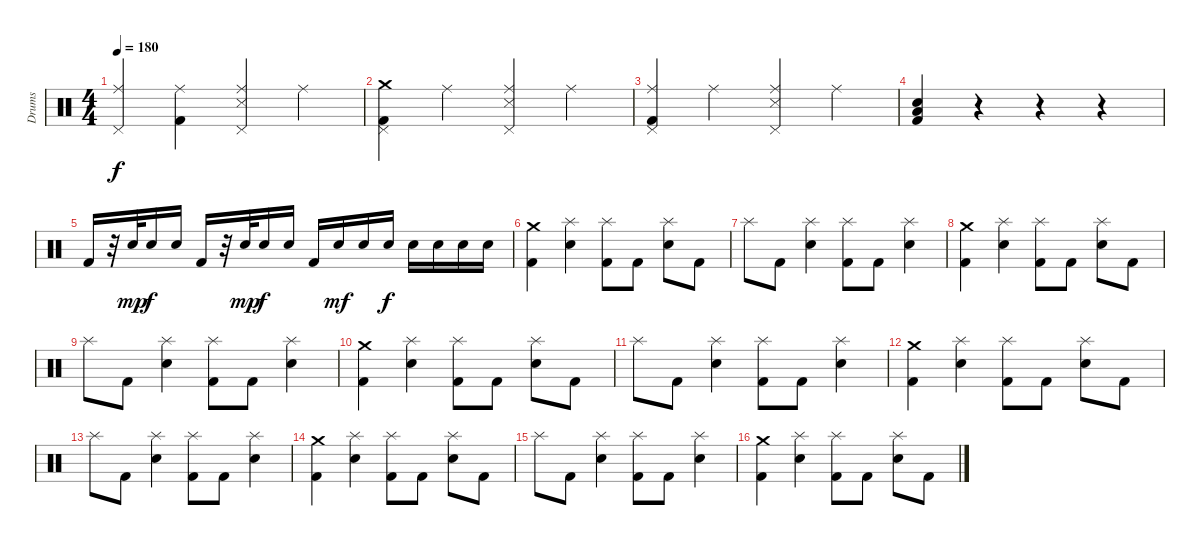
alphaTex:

\track ("Drums" "Drums") {instrument percussion}
\staff {score}
\articulation defaults
\ts (4 4)
\tempo 180
\clef neutral
\ks c
("Pedal Hi-Hat (hit)" "Ride (middle)").4{dy f} ("Ride (middle)" "Kick (hit) 2").4 ("Pedal Hi-Hat (hit)" "Ride (middle)" "Snare (side stick) 3").4 "Ride (middle)".4 |
("Pedal Hi-Hat (hit)" "Crash medium (hit)" "Kick (hit) 2").4 "Ride (middle)".4 ("Pedal Hi-Hat (hit)" "Ride (middle)" "Snare (side stick) 3").4 "Ride (middle)".4 |
("Pedal Hi-Hat (hit)" "Ride (middle)" "Kick (hit) 2").4 "Ride (middle)".4 ("Pedal Hi-Hat (hit)" "Ride (middle)" "Snare (side stick) 3").4 "Ride (middle)".4 |
("Low Tom (hit)" "Electric Snare (hit)" "Kick (hit) 2").4 r.4 r.4 r.4 |
"Kick (hit) 2".16 r.32 "Electric Snare (hit)".32{dy mp} "Electric Snare (hit)".16{dy f} "Electric Snare (hit)".16 "Kick (hit) 2".16 r.32 "Electric Snare (hit)".32{dy mp} "Electric Snare (hit)".16{dy f} "Electric Snare (hit)".16 "Kick (hit) 2".16 "Electric Snare (hit)".16{dy mf} "Electric Snare (hit)".16 "Electric Snare (hit)".16{dy f} "Electric Snare (hit)".16 "Electric Snare (hit)".16 "Electric Snare (hit)".16 "Electric Snare (hit)".16 |
("Crash medium (hit)" "Kick (hit) 2").4 ("Splash (hit)" "Electric Snare (hit)").4 ("Splash (hit)" "Kick (hit) 2").8 "Kick (hit) 2".8 ("Splash (hit)" "Electric Snare (hit)").8 "Kick (hit) 2".8 |
"Splash (hit)".8 "Kick (hit) 2".8 ("Splash (hit)" "Electric Snare (hit)").4 ("Splash (hit)" "Kick (hit) 2").8 "Kick (hit) 2".8 ("Splash (hit)" "Electric Snare (hit)").4 |
("Crash medium (hit)" "Kick (hit) 2").4 ("Splash (hit)" "Electric Snare (hit)").4 ("Splash (hit)" "Kick (hit) 2").8 "Kick (hit) 2".8 ("Splash (hit)" "Electric Snare (hit)").8 "Kick (hit) 2".8 |
"Splash (hit)".8 "Kick (hit) 2".8 ("Splash (hit)" "Electric Snare (hit)").4 ("Splash (hit)" "Kick (hit) 2").8 "Kick (hit) 2".8 ("Splash (hit)" "Electric Snare (hit)").4 |
("Crash medium (hit)" "Kick (hit) 2").4 ("Splash (hit)" "Electric Snare (hit)").4 ("Splash (hit)" "Kick (hit) 2").8 "Kick (hit) 2".8 ("Splash (hit)" "Electric Snare (hit)").8 "Kick (hit) 2".8 |
"Splash (hit)".8 "Kick (hit) 2".8 ("Splash (hit)" "Electric Snare (hit)").4 ("Splash (hit)" "Kick (hit) 2").8 "Kick (hit) 2".8 ("Splash (hit)" "Electric Snare (hit)").4 |
("Crash medium (hit)" "Kick (hit) 2").4 ("Splash (hit)" "Electric Snare (hit)").4 ("Splash (hit)" "Kick (hit) 2").8 "Kick (hit) 2".8 ("Splash (hit)" "Electric Snare (hit)").8 "Kick (hit) 2".8 |
"Splash (hit)".8 "Kick (hit) 2".8 ("Splash (hit)" "Electric Snare (hit)").4 ("Splash (hit)" "Kick (hit) 2").8 "Kick (hit) 2".8 ("Splash (hit)" "Electric Snare (hit)").4 |
("Crash medium (hit)" "Kick (hit) 2").4 ("Splash (hit)" "Electric Snare (hit)").4 ("Splash (hit)" "Kick (hit) 2").8 "Kick (hit) 2".8 ("Splash (hit)" "Electric Snare (hit)").8 "Kick (hit) 2".8 |
"Splash (hit)".8 "Kick (hit) 2".8 ("Splash (hit)" "Electric Snare (hit)").4 ("Splash (hit)" "Kick (hit) 2").8 "Kick (hit) 2".8 ("Splash (hit)" "Electric Snare (hit)").4 |
("Crash medium (hit)" "Kick (hit) 2").4 ("Splash (hit)" "Electric Snare (hit)").4 ("Splash (hit)" "Kick (hit) 2").8 "Kick (hit) 2".8 ("Splash (hit)" "Electric Snare (hit)").8 "Kick (hit) 2".8
